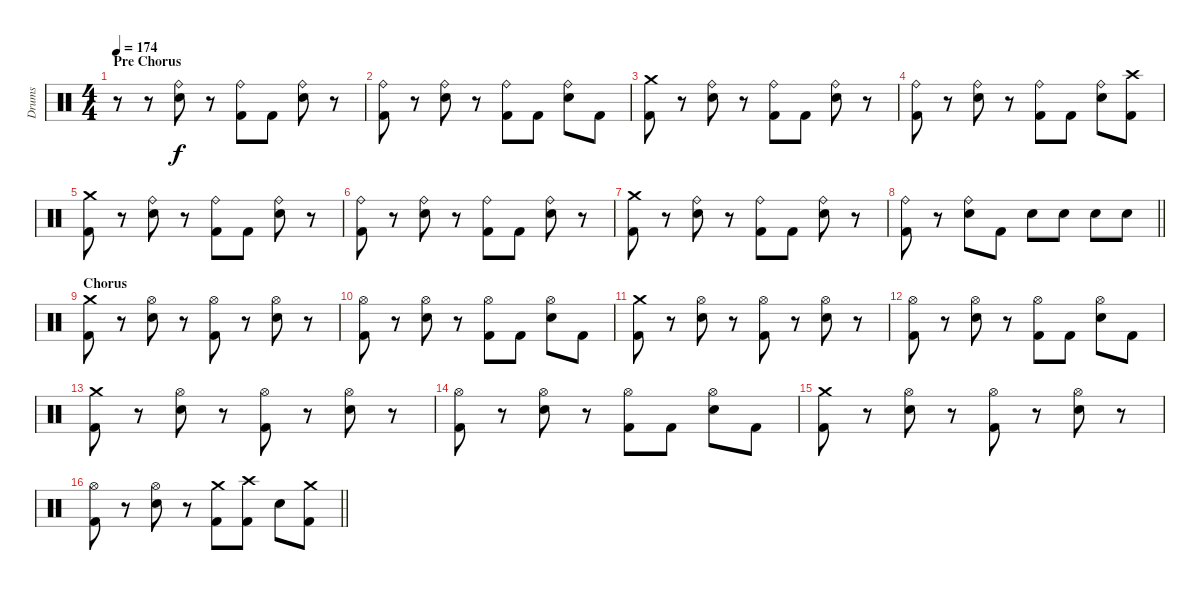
\track ("Drums" "Drums") {instrument percussion}
\staff {score}
\articulation defaults
\ts (4 4)
\section ("" "Pre Chorus")
\tempo 174
\clef neutral
\ks c
r.8{dy f} r.8 ("Ride (bell)" "Electric Snare (hit)").8 r.8 ("Ride (bell)" "Kick (hit) 2").8 "Kick (hit) 2".8 ("Ride (bell)" "Electric Snare (hit)").8 r.8 |
("Ride (bell)" "Kick (hit) 2").8 r.8 ("Ride (bell)" "Electric Snare (hit)").8 r.8 ("Ride (bell)" "Kick (hit) 2").8 "Kick (hit) 2".8 ("Ride (bell)" "Electric Snare (hit)").8 "Kick (hit) 2".8 |
("Crash medium (hit)" "Kick (hit) 2").8 r.8 ("Ride (bell)" "Electric Snare (hit)").8 r.8 ("Ride (bell)" "Kick (hit) 2").8 "Kick (hit) 2".8 ("Ride (bell)" "Electric Snare (hit)").8 r.8 |
("Ride (bell)" "Kick (hit) 2").8 r.8 ("Ride (bell)" "Electric Snare (hit)").8 r.8 ("Ride (bell)" "Kick (hit) 2").8 "Kick (hit) 2".8 ("Ride (bell)" "Electric Snare (hit)").8 ("Crash high (hit)" "Kick (hit) 2").8 |
("Crash medium (hit)" "Kick (hit) 2").8 r.8 ("Ride (bell)" "Electric Snare (hit)").8 r.8 ("Ride (bell)" "Kick (hit) 2").8 "Kick (hit) 2".8 ("Ride (bell)" "Electric Snare (hit)").8 r.8 |
("Ride (bell)" "Kick (hit) 2").8 r.8 ("Ride (bell)" "Electric Snare (hit)").8 r.8 ("Ride (bell)" "Kick (hit) 2").8 "Kick (hit) 2".8 ("Ride (bell)" "Electric Snare (hit)").8 r.8 |
("Crash medium (hit)" "Kick (hit) 2").8 r.8 ("Ride (bell)" "Electric Snare (hit)").8 r.8 ("Ride (bell)" "Kick (hit) 2").8 "Kick (hit) 2".8 ("Ride (bell)" "Electric Snare (hit)").8 r.8 |
\barLineRight lightlight
("Ride (bell)" "Kick (hit) 2").8 r.8 ("Ride (bell)" "Electric Snare (hit)").8 "Kick (hit) 2".8 "Electric Snare (hit)".8 "Electric Snare (hit)".8 "Electric Snare (hit)".8 "Electric Snare (hit)".8 |
\section ("" "Chorus")
("Crash medium (hit)" "Kick (hit) 2").8 r.8 ("Hi-Hat (open)" "Electric Snare (hit)").8 r.8 ("Hi-Hat (open)" "Kick (hit) 2").8 r.8 ("Hi-Hat (open)" "Electric Snare (hit)").8 r.8 |
("Hi-Hat (open)" "Kick (hit) 2").8 r.8 ("Hi-Hat (open)" "Electric Snare (hit)").8 r.8 ("Hi-Hat (open)" "Kick (hit) 2").8 "Kick (hit) 2".8 ("Hi-Hat (open)" "Electric Snare (hit)").8 "Kick (hit) 2".8 |
("Crash medium (hit)" "Kick (hit) 2").8 r.8 ("Hi-Hat (open)" "Electric Snare (hit)").8 r.8 ("Hi-Hat (open)" "Kick (hit) 2").8 r.8 ("Hi-Hat (open)" "Electric Snare (hit)").8 r.8 |
("Hi-Hat (open)" "Kick (hit) 2").8 r.8 ("Hi-Hat (open)" "Electric Snare (hit)").8 r.8 ("Hi-Hat (open)" "Kick (hit) 2").8 "Kick (hit) 2".8 ("Hi-Hat (open)" "Electric Snare (hit)").8 "Kick (hit) 2".8 |
("Crash medium (hit)" "Kick (hit) 2").8 r.8 ("Hi-Hat (open)" "Electric Snare (hit)").8 r.8 ("Hi-Hat (open)" "Kick (hit) 2").8 r.8 ("Hi-Hat (open)" "Electric Snare (hit)").8 r.8 |
("Hi-Hat (open)" "Kick (hit) 2").8 r.8 ("Hi-Hat (open)" "Electric Snare (hit)").8 r.8 ("Hi-Hat (open)" "Kick (hit) 2").8 "Kick (hit) 2".8 ("Hi-Hat (open)" "Electric Snare (hit)").8 "Kick (hit) 2".8 |
("Crash medium (hit)" "Kick (hit) 2").8 r.8 ("Hi-Hat (open)" "Electric Snare (hit)").8 r.8 ("Hi-Hat (open)" "Kick (hit) 2").8 r.8 ("Hi-Hat (open)" "Electric Snare (hit)").8 r.8 |
\barLineRight lightlight
("Hi-Hat (open)" "Kick (hit) 2").8 r.8 ("Hi-Hat (open)" "Electric Snare (hit)").8 r.8 ("Crash medium (hit)" "Kick (hit) 2").8 ("Crash high (hit)" "Kick (hit) 2").8 "Electric Snare (hit)".8 ("Crash medium (hit)" "Kick (hit) 2").8
